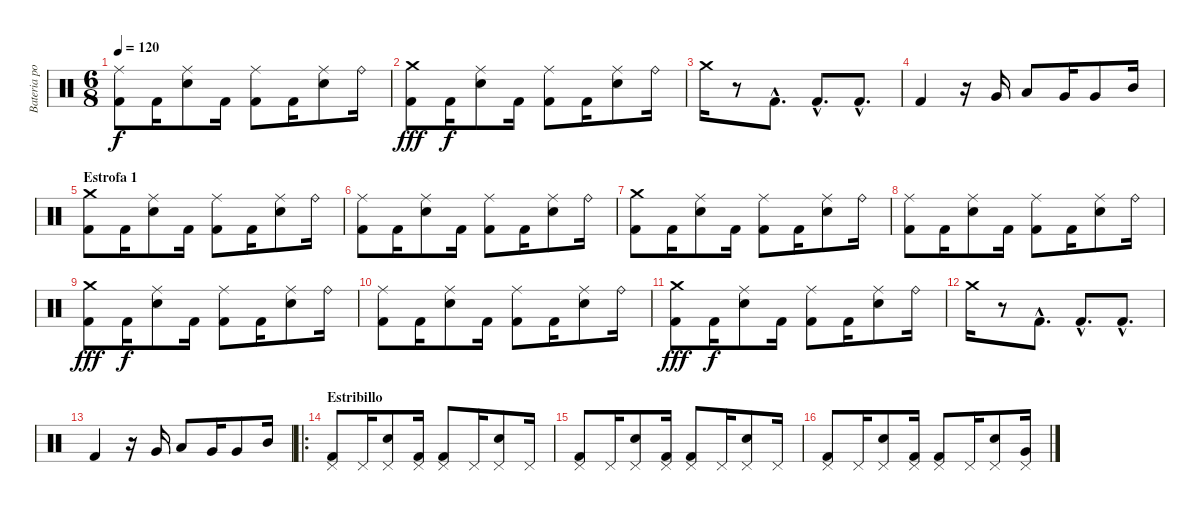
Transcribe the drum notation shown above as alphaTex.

\track ("Bateria por el viejo del bastón" "Bateria po") {instrument percussion}
\staff {score}
\articulation defaults
\ts (6 8)
\tempo 120
\clef neutral
\ks c
("Ride (middle)" "Kick (hit) 2").8{dy f} "Kick (hit) 2".16 ("Ride (middle)" "Snare (hit) 2").8 "Kick (hit) 2".16 ("Ride (middle)" "Kick (hit) 2").8 "Kick (hit) 2".16 ("Ride (middle)" "Snare (hit) 2").8 "Ride (bell)".16 |
("Crash medium (hit)" "Kick (hit) 2").8{dy fff} "Kick (hit) 2".16{dy f} ("Ride (middle)" "Snare (hit) 2").8 "Kick (hit) 2".16 ("Ride (middle)" "Kick (hit) 2").8 "Kick (hit) 2".16 ("Ride (middle)" "Snare (hit) 2").8 "Ride (bell)".16 |
"Crash medium (hit)".16 r.8 "Kick (hit) 2"{hac}.8{d} "Kick (hit) 2"{hac}.8{d} "Kick (hit) 2"{hac}.8{d} |
"Kick (hit) 2".4 r.16 "Very Low Tom (hit)".16 "Low Floor Tom (hit)".8 "Very Low Tom (hit)".16 "Very Low Tom (hit)".8 "Mid Tom (hit)".16 |
\section ("" "Estrofa 1")
("Crash medium (hit)" "Kick (hit) 2").8 "Kick (hit) 2".16 ("Ride (middle)" "Snare (hit) 2").8 "Kick (hit) 2".16 ("Ride (middle)" "Kick (hit) 2").8 "Kick (hit) 2".16 ("Ride (middle)" "Snare (hit) 2").8 "Ride (bell)".16 |
("Ride (middle)" "Kick (hit) 2").8 "Kick (hit) 2".16 ("Ride (middle)" "Snare (hit) 2").8 "Kick (hit) 2".16 ("Ride (middle)" "Kick (hit) 2").8 "Kick (hit) 2".16 ("Ride (middle)" "Snare (hit) 2").8 "Ride (bell)".16 |
("Crash medium (hit)" "Kick (hit) 2").8 "Kick (hit) 2".16 ("Ride (middle)" "Snare (hit) 2").8 "Kick (hit) 2".16 ("Ride (middle)" "Kick (hit) 2").8 "Kick (hit) 2".16 ("Ride (middle)" "Snare (hit) 2").8 "Ride (bell)".16 |
("Ride (middle)" "Kick (hit) 2").8 "Kick (hit) 2".16 ("Ride (middle)" "Snare (hit) 2").8 "Kick (hit) 2".16 ("Ride (middle)" "Kick (hit) 2").8 "Kick (hit) 2".16 ("Ride (middle)" "Snare (hit) 2").8 "Ride (bell)".16 |
("Crash medium (hit)" "Kick (hit) 2").8{dy fff} "Kick (hit) 2".16{dy f} ("Ride (middle)" "Snare (hit) 2").8 "Kick (hit) 2".16 ("Ride (middle)" "Kick (hit) 2").8 "Kick (hit) 2".16 ("Ride (middle)" "Snare (hit) 2").8 "Ride (bell)".16 |
("Ride (middle)" "Kick (hit) 2").8 "Kick (hit) 2".16 ("Ride (middle)" "Snare (hit) 2").8 "Kick (hit) 2".16 ("Ride (middle)" "Kick (hit) 2").8 "Kick (hit) 2".16 ("Ride (middle)" "Snare (hit) 2").8 "Ride (bell)".16 |
("Crash medium (hit)" "Kick (hit) 2").8{dy fff} "Kick (hit) 2".16{dy f} ("Ride (middle)" "Snare (hit) 2").8 "Kick (hit) 2".16 ("Ride (middle)" "Kick (hit) 2").8 "Kick (hit) 2".16 ("Ride (middle)" "Snare (hit) 2").8 "Ride (bell)".16 |
"Crash medium (hit)".16 r.8 "Kick (hit) 2"{hac}.8{d} "Kick (hit) 2"{hac}.8{d} "Kick (hit) 2"{hac}.8{d} |
"Kick (hit) 2".4 r.16 "Very Low Tom (hit)".16 "Low Floor Tom (hit)".8 "Very Low Tom (hit)".16 "Very Low Tom (hit)".8 "Mid Tom (hit)".16 |
\ro
\section ("" "Estribillo")
("Pedal Hi-Hat (hit)" "Kick (hit) 2").8 "Pedal Hi-Hat (hit)".16 ("Pedal Hi-Hat (hit)" "Snare (hit) 2").8 ("Pedal Hi-Hat (hit)" "Kick (hit) 2").16 ("Pedal Hi-Hat (hit)" "Kick (hit) 2").8 "Pedal Hi-Hat (hit)".16 ("Pedal Hi-Hat (hit)" "Snare (hit) 2").8 "Pedal Hi-Hat (hit)".16 |
("Pedal Hi-Hat (hit)" "Kick (hit) 2").8 "Pedal Hi-Hat (hit)".16 ("Pedal Hi-Hat (hit)" "Snare (hit) 2").8 ("Pedal Hi-Hat (hit)" "Kick (hit) 2").16 ("Pedal Hi-Hat (hit)" "Kick (hit) 2").8 "Pedal Hi-Hat (hit)".16 ("Pedal Hi-Hat (hit)" "Snare (hit) 2").8 "Pedal Hi-Hat (hit)".16 |
("Pedal Hi-Hat (hit)" "Kick (hit) 2").8 "Pedal Hi-Hat (hit)".16 ("Pedal Hi-Hat (hit)" "Snare (hit) 2").8 ("Pedal Hi-Hat (hit)" "Kick (hit) 2").16 ("Pedal Hi-Hat (hit)" "Kick (hit) 2").8 "Pedal Hi-Hat (hit)".16 ("Pedal Hi-Hat (hit)" "Snare (hit) 2").8 ("Pedal Hi-Hat (hit)" "Very Low Tom (hit)").16
